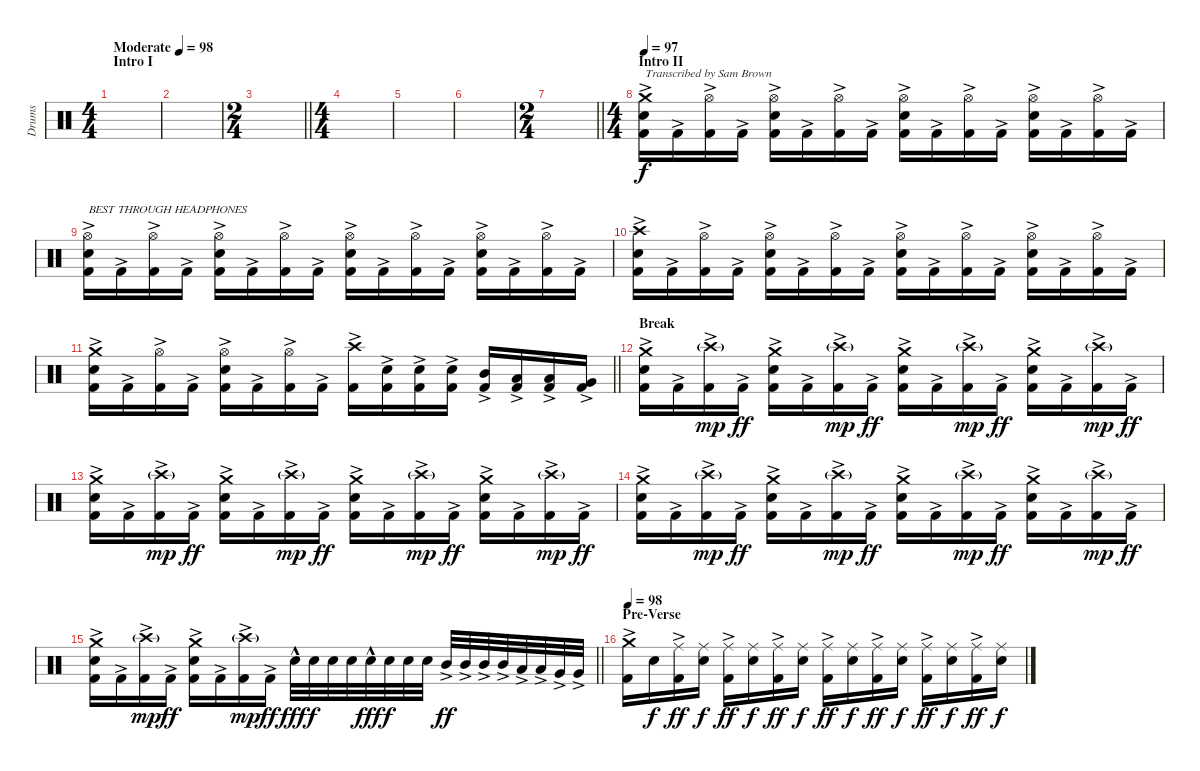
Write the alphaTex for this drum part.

\track ("Drums" "Drums") {instrument percussion}
\staff {score}
\articulation defaults
\ts (4 4)
\section ("" "Intro I")
\tempo (98 "Moderate")
\clef neutral
\ks c
|
|
\ts (2 4)
\barLineRight lightlight
|
\ts (4 4)
\section ("" "")
|
|
|
\ts (2 4)
\barLineRight lightlight
|
\ts (4 4)
\section ("" "Intro II")
\tempo 97
("Kick (hit) 2"{ac} "Snare (hit) 2" "Crash medium (hit)").16{txt "Transcribed by Sam Brown" volume 14} "Kick (hit) 2"{ac}.16 ("Kick (hit) 2"{ac} "Hi-Hat (open)").16 "Kick (hit) 2"{ac}.16 ("Kick (hit) 2"{ac} "Snare (hit) 2" "Hi-Hat (open)").16 "Kick (hit) 2"{ac}.16 ("Kick (hit) 2"{ac} "Hi-Hat (open)").16 "Kick (hit) 2"{ac}.16 ("Kick (hit) 2"{ac} "Snare (hit) 2" "Hi-Hat (open)").16 "Kick (hit) 2"{ac}.16 ("Kick (hit) 2"{ac} "Hi-Hat (open)").16 "Kick (hit) 2"{ac}.16 ("Kick (hit) 2"{ac} "Snare (hit) 2" "Hi-Hat (open)").16 "Kick (hit) 2"{ac}.16 ("Kick (hit) 2"{ac} "Hi-Hat (open)").16 "Kick (hit) 2"{ac}.16 |
("Kick (hit) 2"{ac} "Snare (hit) 2" "Hi-Hat (open)").16{txt "BEST THROUGH HEADPHONES"} "Kick (hit) 2"{ac}.16 ("Kick (hit) 2"{ac} "Hi-Hat (open)").16 "Kick (hit) 2"{ac}.16 ("Kick (hit) 2"{ac} "Snare (hit) 2" "Hi-Hat (open)").16 "Kick (hit) 2"{ac}.16 ("Kick (hit) 2"{ac} "Hi-Hat (open)").16 "Kick (hit) 2"{ac}.16 ("Kick (hit) 2"{ac} "Snare (hit) 2" "Hi-Hat (open)").16 "Kick (hit) 2"{ac}.16 ("Kick (hit) 2"{ac} "Hi-Hat (open)").16 "Kick (hit) 2"{ac}.16 ("Kick (hit) 2"{ac} "Snare (hit) 2" "Hi-Hat (open)").16 "Kick (hit) 2"{ac}.16 ("Kick (hit) 2"{ac} "Hi-Hat (open)").16 "Kick (hit) 2"{ac}.16 |
("Kick (hit) 2"{ac} "Snare (hit) 2" "Crash high (hit)").16 "Kick (hit) 2"{ac}.16 ("Kick (hit) 2"{ac} "Hi-Hat (open)").16 "Kick (hit) 2"{ac}.16 ("Kick (hit) 2"{ac} "Snare (hit) 2" "Hi-Hat (open)").16 "Kick (hit) 2"{ac}.16 ("Kick (hit) 2"{ac} "Hi-Hat (open)").16 "Kick (hit) 2"{ac}.16 ("Kick (hit) 2"{ac} "Snare (hit) 2" "Hi-Hat (open)").16 "Kick (hit) 2"{ac}.16 ("Kick (hit) 2"{ac} "Hi-Hat (open)").16 "Kick (hit) 2"{ac}.16 ("Kick (hit) 2"{ac} "Snare (hit) 2" "Hi-Hat (open)").16 "Kick (hit) 2"{ac}.16 ("Kick (hit) 2"{ac} "Hi-Hat (open)").16 "Kick (hit) 2"{ac}.16 |
\barLineRight lightlight
("Kick (hit) 2"{ac} "Snare (hit) 2" "Crash medium (hit)").16 "Kick (hit) 2"{ac}.16 ("Kick (hit) 2"{ac} "Hi-Hat (open)").16 "Kick (hit) 2"{ac}.16 ("Kick (hit) 2"{ac} "Snare (hit) 2" "Hi-Hat (open)").16 "Kick (hit) 2"{ac}.16 ("Kick (hit) 2"{ac} "Hi-Hat (open)").16 "Kick (hit) 2"{ac}.16 ("Kick (hit) 2"{ac} "Crash high (hit)").16 ("Kick (hit) 2"{ac} "Snare (hit) 2"{ac}).16 ("Kick (hit) 2"{ac} "Snare (hit) 2"{ac}).16 ("Kick (hit) 2"{ac} "Snare (hit) 2"{ac}).16 ("Kick (hit) 2"{ac} "Mid Tom (hit)"{ac}).16 ("Kick (hit) 2"{ac} "Low Tom (hit)"{ac}).16 ("Kick (hit) 2"{ac} "Low Tom (hit)"{ac}).16 ("Kick (hit) 2"{ac} "Very Low Tom (hit)"{ac}).16 |
\section ("" "Break")
("Kick (hit) 2"{ac} "Snare (hit) 2" "Crash medium (hit)").16 "Kick (hit) 2"{ac}.16 ("Kick (hit) 2"{ac} "Crash high (hit)"{g}).16{dy mp} "Kick (hit) 2"{ac}.16{dy ff} ("Kick (hit) 2"{ac} "Snare (hit) 2" "Crash medium (hit)").16 "Kick (hit) 2"{ac}.16 ("Kick (hit) 2"{ac} "Crash high (hit)"{g}).16{dy mp} "Kick (hit) 2"{ac}.16{dy ff} ("Kick (hit) 2"{ac} "Snare (hit) 2" "Crash medium (hit)").16 "Kick (hit) 2"{ac}.16 ("Kick (hit) 2"{ac} "Crash high (hit)"{g}).16{dy mp} "Kick (hit) 2"{ac}.16{dy ff} ("Kick (hit) 2"{ac} "Snare (hit) 2" "Crash medium (hit)").16 "Kick (hit) 2"{ac}.16 ("Kick (hit) 2"{ac} "Crash high (hit)"{g}).16{dy mp} "Kick (hit) 2"{ac}.16{dy ff} |
("Kick (hit) 2"{ac} "Snare (hit) 2" "Crash medium (hit)").16 "Kick (hit) 2"{ac}.16 ("Kick (hit) 2"{ac} "Crash high (hit)"{g}).16{dy mp} "Kick (hit) 2"{ac}.16{dy ff} ("Kick (hit) 2"{ac} "Snare (hit) 2" "Crash medium (hit)").16 "Kick (hit) 2"{ac}.16 ("Kick (hit) 2"{ac} "Crash high (hit)"{g}).16{dy mp} "Kick (hit) 2"{ac}.16{dy ff} ("Kick (hit) 2"{ac} "Snare (hit) 2" "Crash medium (hit)").16 "Kick (hit) 2"{ac}.16 ("Kick (hit) 2"{ac} "Crash high (hit)"{g}).16{dy mp} "Kick (hit) 2"{ac}.16{dy ff} ("Kick (hit) 2"{ac} "Snare (hit) 2" "Crash medium (hit)").16 "Kick (hit) 2"{ac}.16 ("Kick (hit) 2"{ac} "Crash high (hit)"{g}).16{dy mp} "Kick (hit) 2"{ac}.16{dy ff} |
("Kick (hit) 2"{ac} "Snare (hit) 2" "Crash medium (hit)").16 "Kick (hit) 2"{ac}.16 ("Kick (hit) 2"{ac} "Crash high (hit)"{g}).16{dy mp} "Kick (hit) 2"{ac}.16{dy ff} ("Kick (hit) 2"{ac} "Snare (hit) 2" "Crash medium (hit)").16 "Kick (hit) 2"{ac}.16 ("Kick (hit) 2"{ac} "Crash high (hit)"{g}).16{dy mp} "Kick (hit) 2"{ac}.16{dy ff} ("Kick (hit) 2"{ac} "Snare (hit) 2" "Crash medium (hit)").16 "Kick (hit) 2"{ac}.16 ("Kick (hit) 2"{ac} "Crash high (hit)"{g}).16{dy mp} "Kick (hit) 2"{ac}.16{dy ff} ("Kick (hit) 2"{ac} "Snare (hit) 2" "Crash medium (hit)").16 "Kick (hit) 2"{ac}.16 ("Kick (hit) 2"{ac} "Crash high (hit)"{g}).16{dy mp} "Kick (hit) 2"{ac}.16{dy ff} |
\barLineRight lightlight
("Kick (hit) 2"{ac} "Snare (hit) 2" "Crash medium (hit)").16 "Kick (hit) 2"{ac}.16 ("Kick (hit) 2"{ac} "Crash high (hit)"{g}).16{dy mp} "Kick (hit) 2"{ac}.16{dy ff} ("Kick (hit) 2"{ac} "Snare (hit) 2" "Crash medium (hit)").16 "Kick (hit) 2"{ac}.16 ("Kick (hit) 2"{ac} "Crash high (hit)"{g}).16{dy mp} "Kick (hit) 2"{ac}.16{dy ff} "Snare (hit) 2"{hac}.32{dy fff} "Snare (hit) 2".32{dy f} "Snare (hit) 2".32 "Snare (hit) 2".32 "Snare (hit) 2"{hac}.32{dy fff} "Snare (hit) 2".32{dy f} "Snare (hit) 2".32 "Snare (hit) 2".32 "Mid Tom (hit)"{ac}.32{dy ff} "Mid Tom (hit)"{ac}.32 "Mid Tom (hit)"{ac}.32 "Mid Tom (hit)"{ac}.32 "Low Tom (hit)"{ac}.32 "Low Tom (hit)"{ac}.32 "Very Low Tom (hit)"{ac}.32 "Very Low Tom (hit)"{ac}.32 |
\section ("" "Pre-Verse")
\tempo 98
("Kick (hit) 2"{ac} "Crash medium (hit)").16 "Snare (hit) 2".16{dy f} ("Kick (hit) 2"{ac} "Ride (middle)").16{dy ff} ("Snare (hit) 2" "Ride (middle)").16{dy f} ("Kick (hit) 2"{ac} "Ride (middle)").16{dy ff} ("Snare (hit) 2" "Ride (middle)").16{dy f} ("Kick (hit) 2"{ac} "Ride (middle)").16{dy ff} ("Snare (hit) 2" "Ride (middle)").16{dy f} ("Kick (hit) 2"{ac} "Ride (middle)").16{dy ff} ("Snare (hit) 2" "Ride (middle)").16{dy f} ("Kick (hit) 2"{ac} "Ride (middle)").16{dy ff} ("Snare (hit) 2" "Ride (middle)").16{dy f} ("Kick (hit) 2"{ac} "Ride (middle)").16{dy ff} ("Snare (hit) 2" "Ride (middle)").16{dy f} ("Kick (hit) 2"{ac} "Ride (middle)").16{dy ff} ("Snare (hit) 2" "Ride (middle)").16{dy f}
